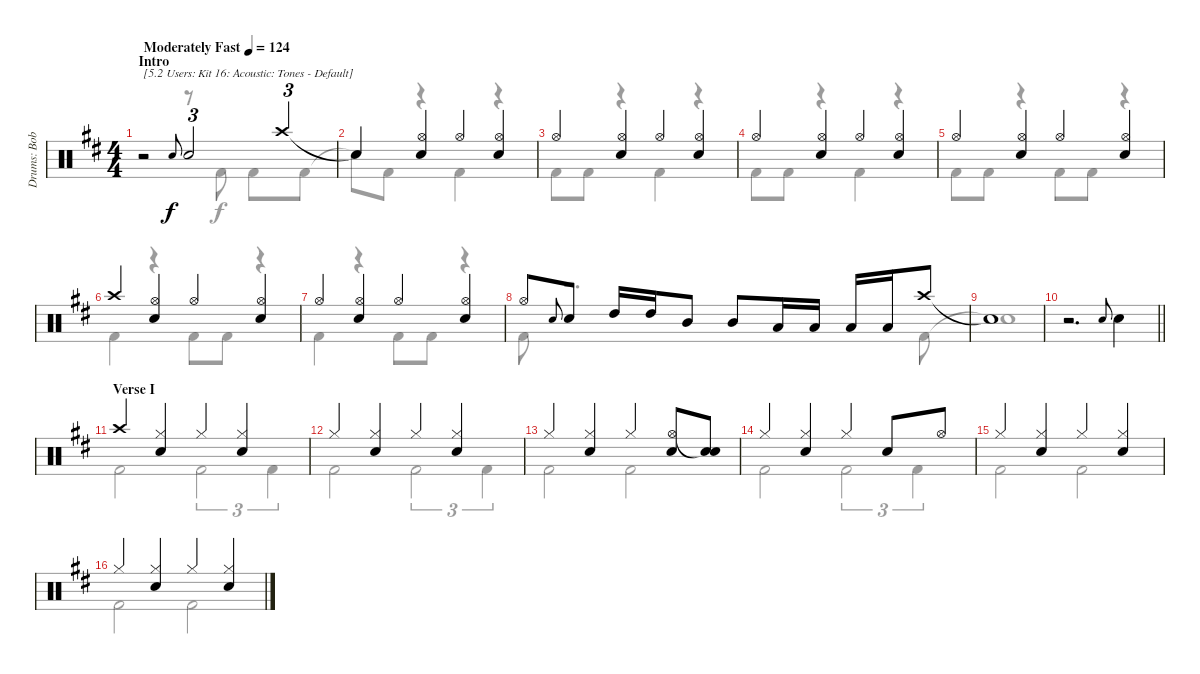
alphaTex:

\track ("Drums: Bobby" "Drums: Bob") {instrument percussion}
\staff {score}
\articulation defaults
\voice
\ts (4 4)
\section ("" "Intro")
\tempo (124 "Moderately Fast")
\clef neutral
\ks d
r.2{txt "[5.2 Users: Kit 16: Acoustic: Tones - Default]" dy f} "Electric Snare (hit)".8{gr onbeat} "Snare (hit) 2".2{tu (3 2)} "Crash high (hit)".4{tu (3 2)} |
"Snare (hit)"{t}.4 ("Hi-Hat (open)" "Snare (hit) 2").4 "Hi-Hat (open)".4 ("Hi-Hat (open)" "Snare (hit) 2").4 |
"Hi-Hat (open)".4 ("Hi-Hat (open)" "Snare (hit) 2").4 "Hi-Hat (open)".4 ("Hi-Hat (open)" "Snare (hit) 2").4 |
"Hi-Hat (open)".4 ("Hi-Hat (open)" "Snare (hit) 2").4 "Hi-Hat (open)".4 ("Hi-Hat (open)" "Snare (hit) 2").4 |
"Hi-Hat (open)".4 ("Hi-Hat (open)" "Snare (hit) 2").4 "Hi-Hat (open)".4 ("Hi-Hat (open)" "Snare (hit) 2").4 |
"Crash high (hit)".4 ("Hi-Hat (open)" "Snare (hit) 2").4 "Hi-Hat (open)".4 ("Hi-Hat (open)" "Snare (hit) 2").4 |
"Hi-Hat (open)".4 ("Hi-Hat (open)" "Snare (hit) 2").4 "Hi-Hat (open)".4 ("Hi-Hat (open)" "Snare (hit) 2").4 |
"Hi-Hat (open)".8 "Electric Snare (hit)".8{gr onbeat} "Snare (hit) 2".8 "High Tom (hit)".16 "High Tom (hit)".16 "Mid Tom (hit)".8 "Mid Tom (hit)".8 "Low Tom (hit)".16 "Low Tom (hit)".16 "Low Tom (hit)".16 "Low Tom (hit)".16 "Crash high (hit)".8 |
"Snare (hit)"{t}.1 |
\barLineRight lightlight
r.2{d} "Electric Snare (hit)".8{gr onbeat} "Snare (hit) 2".4 |
\section ("" "Verse I")
"Crash high (hit)".4 ("Hi-Hat (closed)" "Snare (hit) 2").4 "Hi-Hat (closed)".4 ("Hi-Hat (closed)" "Snare (hit) 2").4 |
"Hi-Hat (closed)".4 ("Hi-Hat (closed)" "Snare (hit) 2").4 "Hi-Hat (closed)".4 ("Hi-Hat (closed)" "Snare (hit) 2").4 |
"Hi-Hat (closed)".4 ("Hi-Hat (closed)" "Snare (hit) 2").4 "Hi-Hat (closed)".4 ("Hi-Hat (open)" "Snare (hit) 2").8 ("Snare (hit)"{t} "Snare (hit) 2").8 |
"Hi-Hat (closed)".4 ("Hi-Hat (closed)" "Snare (hit) 2").4 "Hi-Hat (closed)".4 "Snare (hit) 2".8 "Hi-Hat (open)".8 |
"Hi-Hat (closed)".4 ("Hi-Hat (closed)" "Snare (hit) 2").4 "Hi-Hat (closed)".4 ("Hi-Hat (closed)" "Snare (hit) 2").4 |
"Hi-Hat (closed)".4 ("Hi-Hat (closed)" "Snare (hit) 2").4 "Hi-Hat (closed)".4 ("Hi-Hat (closed)" "Snare (hit) 2").4
\voice
\clef neutral
\ottava regular
\simile none
\ks d
r.2{dy f} r.8 "Kick (hit) 2".8 "Kick (hit) 2".8 "Kick (hit) 2".8 |
"Snare (hit)"{t}.8 "Kick (hit) 2".8 r.4 "Kick (hit) 2".4 r.4 |
"Kick (hit) 2".8 "Kick (hit) 2".8 r.4 "Kick (hit) 2".4 r.4 |
"Kick (hit) 2".8 "Kick (hit) 2".8 r.4 "Kick (hit) 2".4 r.4 |
"Kick (hit) 2".8 "Kick (hit) 2".8 r.4 "Kick (hit) 2".8 "Kick (hit) 2".8 r.4 |
"Kick (hit) 2".4 r.4 "Kick (hit) 2".8 "Kick (hit) 2".8 r.4 |
"Kick (hit) 2".4 r.4 "Kick (hit) 2".8 "Kick (hit) 2".8 r.4 |
"Kick (hit) 2".8 r.2{d} "Kick (hit) 2".8 |
"Snare (hit)"{t}.1 |
\barLineRight lightlight
|
"Kick (hit) 2".2 "Kick (hit) 2".2{tu (3 2)} "Kick (hit) 2".4{tu (3 2)} |
"Kick (hit) 2".2 "Kick (hit) 2".2{tu (3 2)} "Kick (hit) 2".4{tu (3 2)} |
"Kick (hit) 2".2 "Kick (hit) 2".2 |
"Kick (hit) 2".2 "Kick (hit) 2".2{tu (3 2)} "Kick (hit) 2".4{tu (3 2)} |
"Kick (hit) 2".2 "Kick (hit) 2".2 |
"Kick (hit) 2".2 "Kick (hit) 2".2
